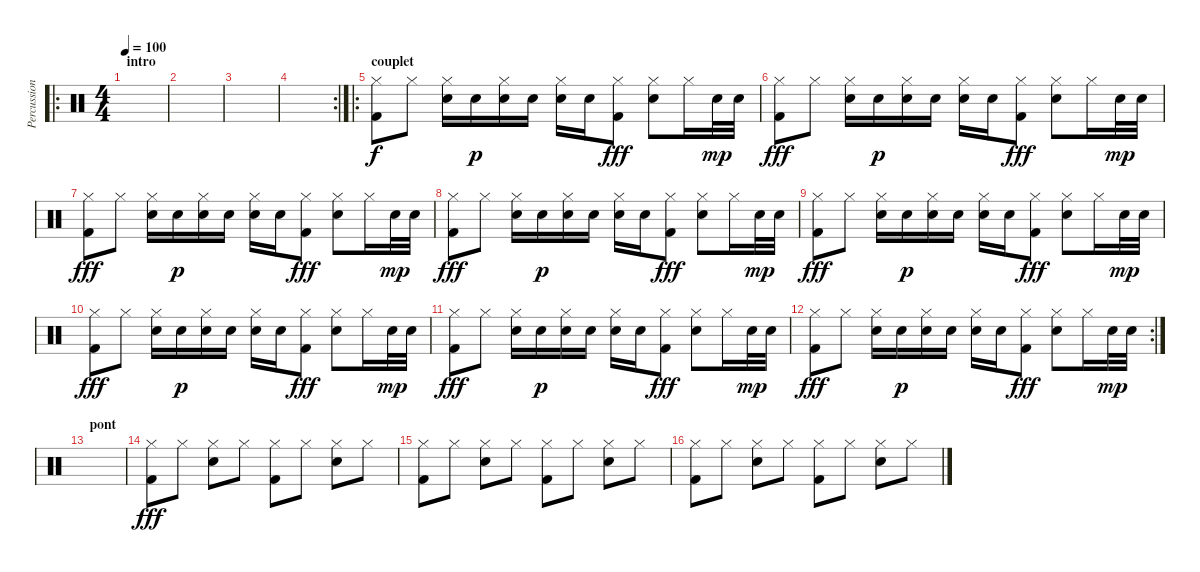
\track ("Percussions" "Percussion") {instrument percussion}
\staff {score}
\articulation defaults
\ro
\ts (4 4)
\section ("" "intro")
\tempo 100
\clef neutral
\ks c
|
|
|
\rc 2
|
\ro
\section ("" "couplet")
("Hi-Hat (closed)" "Kick (hit) 2").8 "Hi-Hat (closed)".8 ("Hi-Hat (closed)" "Snare (hit) 2").16 "Snare (hit) 2".16{dy p} ("Hi-Hat (closed)" "Snare (hit) 2").16 "Snare (hit) 2".16 ("Hi-Hat (closed)" "Snare (hit) 2").16 "Snare (hit) 2".16 ("Hi-Hat (closed)" "Kick (hit) 2").8{dy fff} ("Hi-Hat (closed)" "Snare (hit) 2").8 "Hi-Hat (closed)".16 "Snare (hit) 2".32{dy mp} "Snare (hit) 2".32 |
("Hi-Hat (closed)" "Kick (hit) 2").8{dy fff} "Hi-Hat (closed)".8 ("Hi-Hat (closed)" "Snare (hit) 2").16 "Snare (hit) 2".16{dy p} ("Hi-Hat (closed)" "Snare (hit) 2").16 "Snare (hit) 2".16 ("Hi-Hat (closed)" "Snare (hit) 2").16 "Snare (hit) 2".16 ("Hi-Hat (closed)" "Kick (hit) 2").8{dy fff} ("Hi-Hat (closed)" "Snare (hit) 2").8 "Hi-Hat (closed)".16 "Snare (hit) 2".32{dy mp} "Snare (hit) 2".32 |
("Hi-Hat (closed)" "Kick (hit) 2").8{dy fff} "Hi-Hat (closed)".8 ("Hi-Hat (closed)" "Snare (hit) 2").16 "Snare (hit) 2".16{dy p} ("Hi-Hat (closed)" "Snare (hit) 2").16 "Snare (hit) 2".16 ("Hi-Hat (closed)" "Snare (hit) 2").16 "Snare (hit) 2".16 ("Hi-Hat (closed)" "Kick (hit) 2").8{dy fff} ("Hi-Hat (closed)" "Snare (hit) 2").8 "Hi-Hat (closed)".16 "Snare (hit) 2".32{dy mp} "Snare (hit) 2".32 |
("Hi-Hat (closed)" "Kick (hit) 2").8{dy fff} "Hi-Hat (closed)".8 ("Hi-Hat (closed)" "Snare (hit) 2").16 "Snare (hit) 2".16{dy p} ("Hi-Hat (closed)" "Snare (hit) 2").16 "Snare (hit) 2".16 ("Hi-Hat (closed)" "Snare (hit) 2").16 "Snare (hit) 2".16 ("Hi-Hat (closed)" "Kick (hit) 2").8{dy fff} ("Hi-Hat (closed)" "Snare (hit) 2").8 "Hi-Hat (closed)".16 "Snare (hit) 2".32{dy mp} "Snare (hit) 2".32 |
("Hi-Hat (closed)" "Kick (hit) 2").8{dy fff} "Hi-Hat (closed)".8 ("Hi-Hat (closed)" "Snare (hit) 2").16 "Snare (hit) 2".16{dy p} ("Hi-Hat (closed)" "Snare (hit) 2").16 "Snare (hit) 2".16 ("Hi-Hat (closed)" "Snare (hit) 2").16 "Snare (hit) 2".16 ("Hi-Hat (closed)" "Kick (hit) 2").8{dy fff} ("Hi-Hat (closed)" "Snare (hit) 2").8 "Hi-Hat (closed)".16 "Snare (hit) 2".32{dy mp} "Snare (hit) 2".32 |
("Hi-Hat (closed)" "Kick (hit) 2").8{dy fff} "Hi-Hat (closed)".8 ("Hi-Hat (closed)" "Snare (hit) 2").16 "Snare (hit) 2".16{dy p} ("Hi-Hat (closed)" "Snare (hit) 2").16 "Snare (hit) 2".16 ("Hi-Hat (closed)" "Snare (hit) 2").16 "Snare (hit) 2".16 ("Hi-Hat (closed)" "Kick (hit) 2").8{dy fff} ("Hi-Hat (closed)" "Snare (hit) 2").8 "Hi-Hat (closed)".16 "Snare (hit) 2".32{dy mp} "Snare (hit) 2".32 |
("Hi-Hat (closed)" "Kick (hit) 2").8{dy fff} "Hi-Hat (closed)".8 ("Hi-Hat (closed)" "Snare (hit) 2").16 "Snare (hit) 2".16{dy p} ("Hi-Hat (closed)" "Snare (hit) 2").16 "Snare (hit) 2".16 ("Hi-Hat (closed)" "Snare (hit) 2").16 "Snare (hit) 2".16 ("Hi-Hat (closed)" "Kick (hit) 2").8{dy fff} ("Hi-Hat (closed)" "Snare (hit) 2").8 "Hi-Hat (closed)".16 "Snare (hit) 2".32{dy mp} "Snare (hit) 2".32 |
\rc 2
("Hi-Hat (closed)" "Kick (hit) 2").8{dy fff} "Hi-Hat (closed)".8 ("Hi-Hat (closed)" "Snare (hit) 2").16 "Snare (hit) 2".16{dy p} ("Hi-Hat (closed)" "Snare (hit) 2").16 "Snare (hit) 2".16 ("Hi-Hat (closed)" "Snare (hit) 2").16 "Snare (hit) 2".16 ("Hi-Hat (closed)" "Kick (hit) 2").8{dy fff} ("Hi-Hat (closed)" "Snare (hit) 2").8 "Hi-Hat (closed)".16 "Snare (hit) 2".32{dy mp} "Snare (hit) 2".32 |
\section ("" "pont")
|
("Hi-Hat (closed)" "Kick (hit) 2").8{dy fff} "Hi-Hat (closed)".8 ("Hi-Hat (closed)" "Snare (hit) 2").8 "Hi-Hat (closed)".8 ("Hi-Hat (closed)" "Kick (hit) 2").8 "Hi-Hat (closed)".8 ("Hi-Hat (closed)" "Snare (hit) 2").8 "Hi-Hat (closed)".8 |
("Hi-Hat (closed)" "Kick (hit) 2").8 "Hi-Hat (closed)".8 ("Hi-Hat (closed)" "Snare (hit) 2").8 "Hi-Hat (closed)".8 ("Hi-Hat (closed)" "Kick (hit) 2").8 "Hi-Hat (closed)".8 ("Hi-Hat (closed)" "Snare (hit) 2").8 "Hi-Hat (closed)".8 |
("Hi-Hat (closed)" "Kick (hit) 2").8 "Hi-Hat (closed)".8 ("Hi-Hat (closed)" "Snare (hit) 2").8 "Hi-Hat (closed)".8 ("Hi-Hat (closed)" "Kick (hit) 2").8 "Hi-Hat (closed)".8 ("Hi-Hat (closed)" "Snare (hit) 2").8 "Hi-Hat (closed)".8
